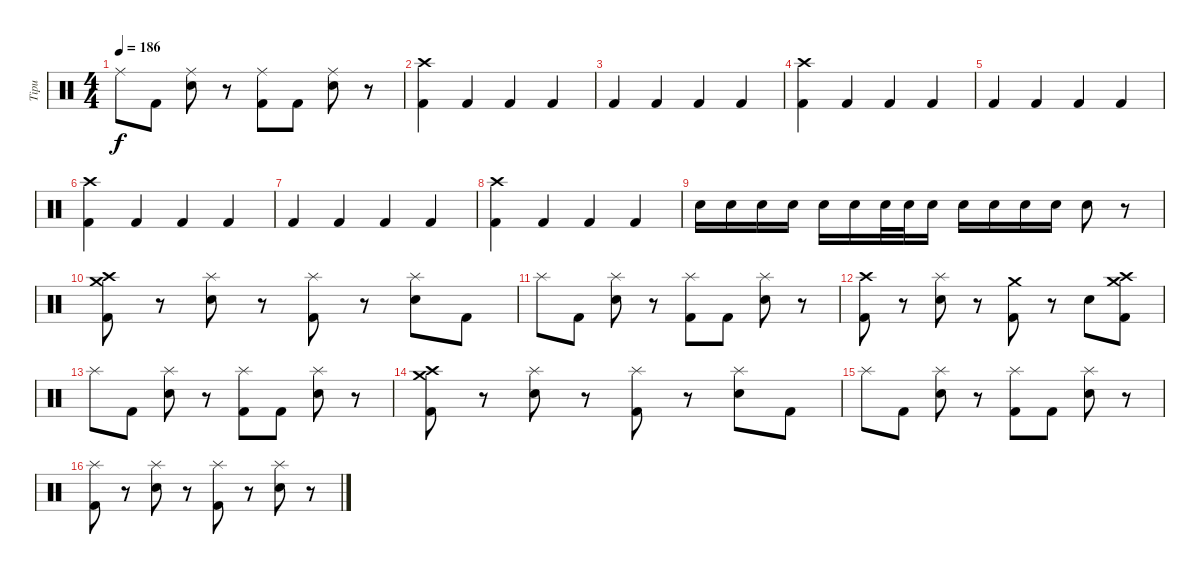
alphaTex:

\track ("Tipu" "Tipu") {instrument percussion}
\staff {score}
\articulation defaults
\ts (4 4)
\tempo 186
\clef neutral
\ks c "Ride (middle)".8{dy f} "Kick (hit) 2".8
("Ride (middle)" "Electric Snare (hit)").8 r.8 ("Ride (middle)" "Kick (hit) 2").8 "Kick (hit) 2".8 ("Ride (middle)" "Electric Snare (hit)").8 r.8 |
("Crash high (hit)" "Kick (hit) 2").4 "Kick (hit) 2".4 "Kick (hit) 2".4 "Kick (hit) 2".4 |
"Kick (hit) 2".4 "Kick (hit) 2".4 "Kick (hit) 2".4 "Kick (hit) 2".4 |
("Crash high (hit)" "Kick (hit) 2").4 "Kick (hit) 2".4 "Kick (hit) 2".4 "Kick (hit) 2".4 |
"Kick (hit) 2".4 "Kick (hit) 2".4 "Kick (hit) 2".4 "Kick (hit) 2".4 |
("Crash high (hit)" "Kick (hit) 2").4 "Kick (hit) 2".4 "Kick (hit) 2".4 "Kick (hit) 2".4 |
"Kick (hit) 2".4 "Kick (hit) 2".4 "Kick (hit) 2".4 "Kick (hit) 2".4 |
("Crash high (hit)" "Kick (hit) 2").4 "Kick (hit) 2".4 "Kick (hit) 2".4 "Kick (hit) 2".4 |
"Electric Snare (hit)".16 "Electric Snare (hit)".16 "Electric Snare (hit)".16 "Electric Snare (hit)".16 "Electric Snare (hit)".16 "Electric Snare (hit)".16 "Electric Snare (hit)".32 "Electric Snare (hit)".32 "Electric Snare (hit)".16 "Electric Snare (hit)".16 "Electric Snare (hit)".16 "Electric Snare (hit)".16 "Electric Snare (hit)".16 "Electric Snare (hit)".8 r.8 |
("Crash high (hit)" "Crash medium (hit)" "Kick (hit) 2").8 r.8 ("Splash (hit)" "Electric Snare (hit)").8 r.8 ("Splash (hit)" "Kick (hit) 2").8 r.8 ("Splash (hit)" "Electric Snare (hit)").8 "Kick (hit) 2".8 |
"Splash (hit)".8 "Kick (hit) 2".8 ("Splash (hit)" "Electric Snare (hit)").8 r.8 ("Splash (hit)" "Kick (hit) 2").8 "Kick (hit) 2".8 ("Splash (hit)" "Electric Snare (hit)").8 r.8 |
("Crash high (hit)" "Kick (hit) 2").8 r.8 ("Splash (hit)" "Electric Snare (hit)").8 r.8 ("Crash medium (hit)" "Kick (hit) 2").8 r.8 "Electric Snare (hit)".8 ("Crash high (hit)" "Crash medium (hit)" "Kick (hit) 2").8 |
"Splash (hit)".8 "Kick (hit) 2".8 ("Splash (hit)" "Electric Snare (hit)").8 r.8 ("Splash (hit)" "Kick (hit) 2").8 "Kick (hit) 2".8 ("Splash (hit)" "Electric Snare (hit)").8 r.8 |
("Crash high (hit)" "Crash medium (hit)" "Kick (hit) 2").8 r.8 ("Splash (hit)" "Electric Snare (hit)").8 r.8 ("Splash (hit)" "Kick (hit) 2").8 r.8 ("Splash (hit)" "Electric Snare (hit)").8 "Kick (hit) 2".8 |
"Splash (hit)".8 "Kick (hit) 2".8 ("Splash (hit)" "Electric Snare (hit)").8 r.8 ("Splash (hit)" "Kick (hit) 2").8 "Kick (hit) 2".8 ("Splash (hit)" "Electric Snare (hit)").8 r.8 |
("Splash (hit)" "Kick (hit) 2").8 r.8 ("Splash (hit)" "Electric Snare (hit)").8 r.8 ("Splash (hit)" "Kick (hit) 2").8 r.8 ("Splash (hit)" "Electric Snare (hit)").8 r.8
